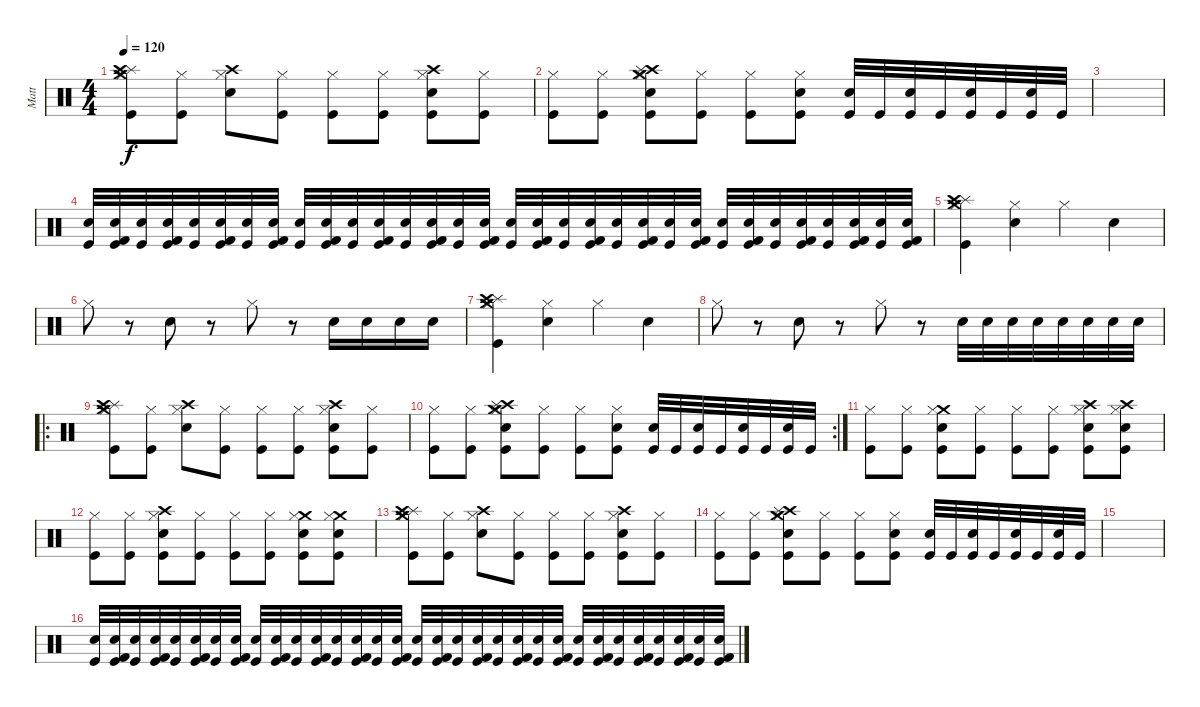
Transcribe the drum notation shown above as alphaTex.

\track ("Matt" "Matt") {instrument percussion}
\staff {score}
\articulation defaults
\ts (4 4)
\tempo 120
\clef neutral
\ks c
("Crash medium (hit)" "Splash (hit)" "Crash high (hit)" "Kick (hit)" "Hi-Hat (closed)").8{dy f} ("Hi-Hat (closed)" "Kick (hit)").8 ("Crash high (hit)" "Hi-Hat (closed)" "Electric Snare (hit)").8 ("Hi-Hat (closed)" "Kick (hit)").8 ("Hi-Hat (closed)" "Kick (hit)").8 ("Hi-Hat (closed)" "Kick (hit)").8 ("Crash high (hit)" "Electric Snare (hit)" "Hi-Hat (closed)" "Kick (hit)").8 ("Hi-Hat (closed)" "Kick (hit)").8 |
("Hi-Hat (closed)" "Kick (hit)").8 ("Hi-Hat (closed)" "Kick (hit)").8 ("Crash high (hit)" "Crash medium (hit)" "Hi-Hat (closed)" "Kick (hit)" "Electric Snare (hit)" "Splash (hit)").8 ("Hi-Hat (closed)" "Kick (hit)").8 ("Kick (hit)" "Hi-Hat (closed)").8 ("Electric Snare (hit)" "Hi-Hat (closed)" "Kick (hit)").8 ("Electric Snare (hit)" "Kick (hit)").32 "Kick (hit)".32 ("Electric Snare (hit)" "Kick (hit)").32 "Kick (hit)".32 ("Electric Snare (hit)" "Kick (hit)").32 "Kick (hit)".32 ("Electric Snare (hit)" "Kick (hit)").32 "Kick (hit)".32 |
|
("Electric Snare (hit)" "Kick (hit)").32 ("Electric Snare (hit)" "Kick (hit)" "Kick (hit) 2").32 ("Electric Snare (hit)" "Kick (hit)").32 ("Electric Snare (hit)" "Kick (hit)" "Kick (hit) 2").32 ("Electric Snare (hit)" "Kick (hit)").32 ("Electric Snare (hit)" "Kick (hit)" "Kick (hit) 2").32 ("Electric Snare (hit)" "Kick (hit)").32 ("Electric Snare (hit)" "Kick (hit)" "Kick (hit) 2").32 ("Electric Snare (hit)" "Kick (hit)").32 ("Electric Snare (hit)" "Kick (hit)" "Kick (hit) 2").32 ("Electric Snare (hit)" "Kick (hit)").32 ("Electric Snare (hit)" "Kick (hit)" "Kick (hit) 2").32 ("Electric Snare (hit)" "Kick (hit)").32 ("Electric Snare (hit)" "Kick (hit)" "Kick (hit) 2").32 ("Electric Snare (hit)" "Kick (hit)").32 ("Electric Snare (hit)" "Kick (hit)" "Kick (hit) 2").32 ("Electric Snare (hit)" "Kick (hit)").32 ("Electric Snare (hit)" "Kick (hit)" "Kick (hit) 2").32 ("Electric Snare (hit)" "Kick (hit)").32 ("Electric Snare (hit)" "Kick (hit)" "Kick (hit) 2").32 ("Electric Snare (hit)" "Kick (hit)").32 ("Electric Snare (hit)" "Kick (hit)" "Kick (hit) 2").32 ("Electric Snare (hit)" "Kick (hit)").32 ("Electric Snare (hit)" "Kick (hit)" "Kick (hit) 2").32 ("Electric Snare (hit)" "Kick (hit)").32 ("Electric Snare (hit)" "Kick (hit)" "Kick (hit) 2").32 ("Electric Snare (hit)" "Kick (hit)").32 ("Electric Snare (hit)" "Kick (hit)" "Kick (hit) 2").32 ("Electric Snare (hit)" "Kick (hit)").32 ("Electric Snare (hit)" "Kick (hit)" "Kick (hit) 2").32 ("Electric Snare (hit)" "Kick (hit)").32 ("Electric Snare (hit)" "Kick (hit)" "Kick (hit) 2").32 |
("Splash (hit)" "Crash medium (hit)" "Crash high (hit)" "Kick (hit)" "Hi-Hat (closed)").4 ("Electric Snare (hit)" "Hi-Hat (closed)").4 "Hi-Hat (closed)".4 "Electric Snare (hit)".4 |
"Hi-Hat (closed)".8 r.8 "Electric Snare (hit)".8 r.8 "Hi-Hat (closed)".8 r.8 "Electric Snare (hit)".16 "Electric Snare (hit)".16 "Electric Snare (hit)".16 "Electric Snare (hit)".16 |
("Splash (hit)" "Crash medium (hit)" "Crash high (hit)" "Kick (hit)" "Hi-Hat (closed)").4 ("Electric Snare (hit)" "Hi-Hat (closed)").4 "Hi-Hat (closed)".4 "Electric Snare (hit)".4 |
"Hi-Hat (closed)".8 r.8 "Electric Snare (hit)".8 r.8 "Hi-Hat (closed)".8 r.8 "Electric Snare (hit)".32 "Electric Snare (hit)".32 "Electric Snare (hit)".32 "Electric Snare (hit)".32 "Electric Snare (hit)".32 "Electric Snare (hit)".32 "Electric Snare (hit)".32 "Electric Snare (hit)".32 |
\ro
("Crash medium (hit)" "Splash (hit)" "Crash high (hit)" "Kick (hit)" "Hi-Hat (closed)").8 ("Hi-Hat (closed)" "Kick (hit)").8 ("Crash high (hit)" "Hi-Hat (closed)" "Electric Snare (hit)").8 ("Hi-Hat (closed)" "Kick (hit)").8 ("Hi-Hat (closed)" "Kick (hit)").8 ("Hi-Hat (closed)" "Kick (hit)").8 ("Crash high (hit)" "Electric Snare (hit)" "Hi-Hat (closed)" "Kick (hit)").8 ("Hi-Hat (closed)" "Kick (hit)").8 |
\rc 2
("Hi-Hat (closed)" "Kick (hit)").8 ("Hi-Hat (closed)" "Kick (hit)").8 ("Crash high (hit)" "Crash medium (hit)" "Hi-Hat (closed)" "Kick (hit)" "Electric Snare (hit)" "Splash (hit)").8 ("Hi-Hat (closed)" "Kick (hit)").8 ("Kick (hit)" "Hi-Hat (closed)").8 ("Electric Snare (hit)" "Hi-Hat (closed)" "Kick (hit)").8 ("Electric Snare (hit)" "Kick (hit)").32 "Kick (hit)".32 ("Electric Snare (hit)" "Kick (hit)").32 "Kick (hit)".32 ("Electric Snare (hit)" "Kick (hit)").32 "Kick (hit)".32 ("Electric Snare (hit)" "Kick (hit)").32 "Kick (hit)".32 |
("Hi-Hat (closed)" "Kick (hit)").8 ("Hi-Hat (closed)" "Kick (hit)").8 ("Crash medium (hit)" "Electric Snare (hit)" "Hi-Hat (closed)" "Kick (hit)").8 ("Hi-Hat (closed)" "Kick (hit)").8 ("Hi-Hat (closed)" "Kick (hit)").8 ("Hi-Hat (closed)" "Kick (hit)").8 ("Crash high (hit)" "Electric Snare (hit)" "Hi-Hat (closed)" "Kick (hit)").8 ("Crash high (hit)" "Electric Snare (hit)" "Hi-Hat (closed)" "Kick (hit)").8 |
("Hi-Hat (closed)" "Kick (hit)").8 ("Hi-Hat (closed)" "Kick (hit)").8 ("Crash high (hit)" "Electric Snare (hit)" "Hi-Hat (closed)" "Kick (hit)").8 ("Hi-Hat (closed)" "Kick (hit)").8 ("Hi-Hat (closed)" "Kick (hit)").8 ("Hi-Hat (closed)" "Kick (hit)").8 ("Crash medium (hit)" "Electric Snare (hit)" "Hi-Hat (closed)" "Kick (hit)").8 ("Crash medium (hit)" "Electric Snare (hit)" "Hi-Hat (closed)" "Kick (hit)").8 |
("Crash medium (hit)" "Splash (hit)" "Crash high (hit)" "Kick (hit)" "Hi-Hat (closed)").8 ("Hi-Hat (closed)" "Kick (hit)").8 ("Crash high (hit)" "Hi-Hat (closed)" "Electric Snare (hit)").8 ("Hi-Hat (closed)" "Kick (hit)").8 ("Hi-Hat (closed)" "Kick (hit)").8 ("Hi-Hat (closed)" "Kick (hit)").8 ("Crash high (hit)" "Electric Snare (hit)" "Hi-Hat (closed)" "Kick (hit)").8 ("Hi-Hat (closed)" "Kick (hit)").8 |
("Hi-Hat (closed)" "Kick (hit)").8 ("Hi-Hat (closed)" "Kick (hit)").8 ("Crash high (hit)" "Crash medium (hit)" "Hi-Hat (closed)" "Kick (hit)" "Electric Snare (hit)" "Splash (hit)").8 ("Hi-Hat (closed)" "Kick (hit)").8 ("Kick (hit)" "Hi-Hat (closed)").8 ("Electric Snare (hit)" "Hi-Hat (closed)" "Kick (hit)").8 ("Electric Snare (hit)" "Kick (hit)").32 "Kick (hit)".32 ("Electric Snare (hit)" "Kick (hit)").32 "Kick (hit)".32 ("Electric Snare (hit)" "Kick (hit)").32 "Kick (hit)".32 ("Electric Snare (hit)" "Kick (hit)").32 "Kick (hit)".32 |
|
("Electric Snare (hit)" "Kick (hit)").32 ("Electric Snare (hit)" "Kick (hit)" "Kick (hit) 2").32 ("Electric Snare (hit)" "Kick (hit)").32 ("Electric Snare (hit)" "Kick (hit)" "Kick (hit) 2").32 ("Electric Snare (hit)" "Kick (hit)").32 ("Electric Snare (hit)" "Kick (hit)" "Kick (hit) 2").32 ("Electric Snare (hit)" "Kick (hit)").32 ("Electric Snare (hit)" "Kick (hit)" "Kick (hit) 2").32 ("Electric Snare (hit)" "Kick (hit)").32 ("Electric Snare (hit)" "Kick (hit)" "Kick (hit) 2").32 ("Electric Snare (hit)" "Kick (hit)").32 ("Electric Snare (hit)" "Kick (hit)" "Kick (hit) 2").32 ("Electric Snare (hit)" "Kick (hit)").32 ("Electric Snare (hit)" "Kick (hit)" "Kick (hit) 2").32 ("Electric Snare (hit)" "Kick (hit)").32 ("Electric Snare (hit)" "Kick (hit)" "Kick (hit) 2").32 ("Electric Snare (hit)" "Kick (hit)").32 ("Electric Snare (hit)" "Kick (hit)" "Kick (hit) 2").32 ("Electric Snare (hit)" "Kick (hit)").32 ("Electric Snare (hit)" "Kick (hit)" "Kick (hit) 2").32 ("Electric Snare (hit)" "Kick (hit)").32 ("Electric Snare (hit)" "Kick (hit)" "Kick (hit) 2").32 ("Electric Snare (hit)" "Kick (hit)").32 ("Electric Snare (hit)" "Kick (hit)" "Kick (hit) 2").32 ("Electric Snare (hit)" "Kick (hit)").32 ("Electric Snare (hit)" "Kick (hit)" "Kick (hit) 2").32 ("Electric Snare (hit)" "Kick (hit)").32 ("Electric Snare (hit)" "Kick (hit)" "Kick (hit) 2").32 ("Electric Snare (hit)" "Kick (hit)").32 ("Electric Snare (hit)" "Kick (hit)" "Kick (hit) 2").32 ("Electric Snare (hit)" "Kick (hit)").32 ("Electric Snare (hit)" "Kick (hit)" "Kick (hit) 2").32
